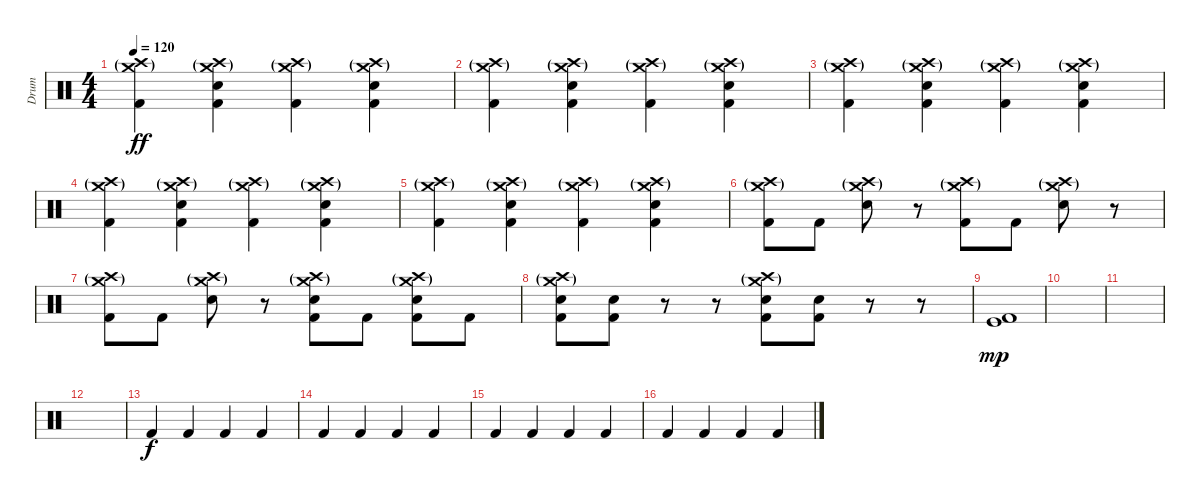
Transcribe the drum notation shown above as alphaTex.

\track ("Drum" "Drum") {instrument percussion}
\staff {score}
\articulation defaults
\ts (4 4)
\tempo 120
\clef neutral
\ks c
("Crash medium (hit)"{g} "Crash high (hit)"{g} "Kick (hit) 2").4{dy ff} ("Crash medium (hit)"{g} "Crash high (hit)"{g} "Snare (hit) 2" "Kick (hit) 2").4 ("Crash medium (hit)"{g} "Crash high (hit)"{g} "Kick (hit) 2").4 ("Crash medium (hit)"{g} "Crash high (hit)"{g} "Snare (hit) 2" "Kick (hit) 2").4 |
("Crash medium (hit)"{g} "Crash high (hit)"{g} "Kick (hit) 2").4 ("Crash medium (hit)"{g} "Crash high (hit)"{g} "Snare (hit) 2" "Kick (hit) 2").4 ("Crash medium (hit)"{g} "Crash high (hit)"{g} "Kick (hit) 2").4 ("Crash medium (hit)"{g} "Crash high (hit)"{g} "Snare (hit) 2" "Kick (hit) 2").4 |
("Crash medium (hit)"{g} "Crash high (hit)"{g} "Kick (hit) 2").4 ("Crash medium (hit)"{g} "Crash high (hit)"{g} "Snare (hit) 2" "Kick (hit) 2").4 ("Crash medium (hit)"{g} "Crash high (hit)"{g} "Kick (hit) 2").4 ("Crash medium (hit)"{g} "Crash high (hit)"{g} "Snare (hit) 2" "Kick (hit) 2").4 |
("Crash medium (hit)"{g} "Crash high (hit)"{g} "Kick (hit) 2").4 ("Crash medium (hit)"{g} "Crash high (hit)"{g} "Snare (hit) 2" "Kick (hit) 2").4 ("Crash medium (hit)"{g} "Crash high (hit)"{g} "Kick (hit) 2").4 ("Crash medium (hit)"{g} "Crash high (hit)"{g} "Snare (hit) 2" "Kick (hit) 2").4 |
("Crash medium (hit)"{g} "Crash high (hit)"{g} "Kick (hit) 2").4 ("Crash medium (hit)"{g} "Crash high (hit)"{g} "Snare (hit) 2" "Kick (hit) 2").4 ("Crash medium (hit)"{g} "Crash high (hit)"{g} "Kick (hit) 2").4 ("Crash medium (hit)"{g} "Crash high (hit)"{g} "Snare (hit) 2" "Kick (hit) 2").4 |
("Crash medium (hit)"{g} "Crash high (hit)"{g} "Kick (hit) 2").8 "Kick (hit) 2".8 ("Crash medium (hit)"{g} "Crash high (hit)"{g} "Snare (hit) 2").8 r.8 ("Crash medium (hit)"{g} "Crash high (hit)"{g} "Kick (hit) 2").8 "Kick (hit) 2".8 ("Crash medium (hit)"{g} "Crash high (hit)"{g} "Snare (hit) 2").8 r.8 |
("Crash medium (hit)"{g} "Crash high (hit)"{g} "Kick (hit) 2").8 "Kick (hit) 2".8 ("Crash medium (hit)"{g} "Crash high (hit)"{g} "Snare (hit) 2").8 r.8 ("Crash medium (hit)"{g} "Crash high (hit)"{g} "Snare (hit) 2" "Kick (hit) 2").8 "Kick (hit) 2".8 ("Crash medium (hit)"{g} "Crash high (hit)"{g} "Snare (hit) 2" "Kick (hit) 2").8 "Kick (hit) 2".8 |
("Crash medium (hit)"{g} "Crash high (hit)"{g} "Snare (hit) 2" "Kick (hit) 2").8 ("Snare (hit) 2" "Kick (hit) 2").8 r.8 r.8 ("Crash medium (hit)"{g} "Crash high (hit)"{g} "Snare (hit) 2" "Kick (hit) 2").8 ("Snare (hit) 2" "Kick (hit) 2").8 r.8 r.8 |
("Kick (hit)" "Kick (hit) 2").1{dy mp} |
|
|
|
"Kick (hit) 2".4{dy f} "Kick (hit) 2".4 "Kick (hit) 2".4 "Kick (hit) 2".4 |
"Kick (hit) 2".4 "Kick (hit) 2".4 "Kick (hit) 2".4 "Kick (hit) 2".4 |
"Kick (hit) 2".4 "Kick (hit) 2".4 "Kick (hit) 2".4 "Kick (hit) 2".4 |
"Kick (hit) 2".4 "Kick (hit) 2".4 "Kick (hit) 2".4 "Kick (hit) 2".4
